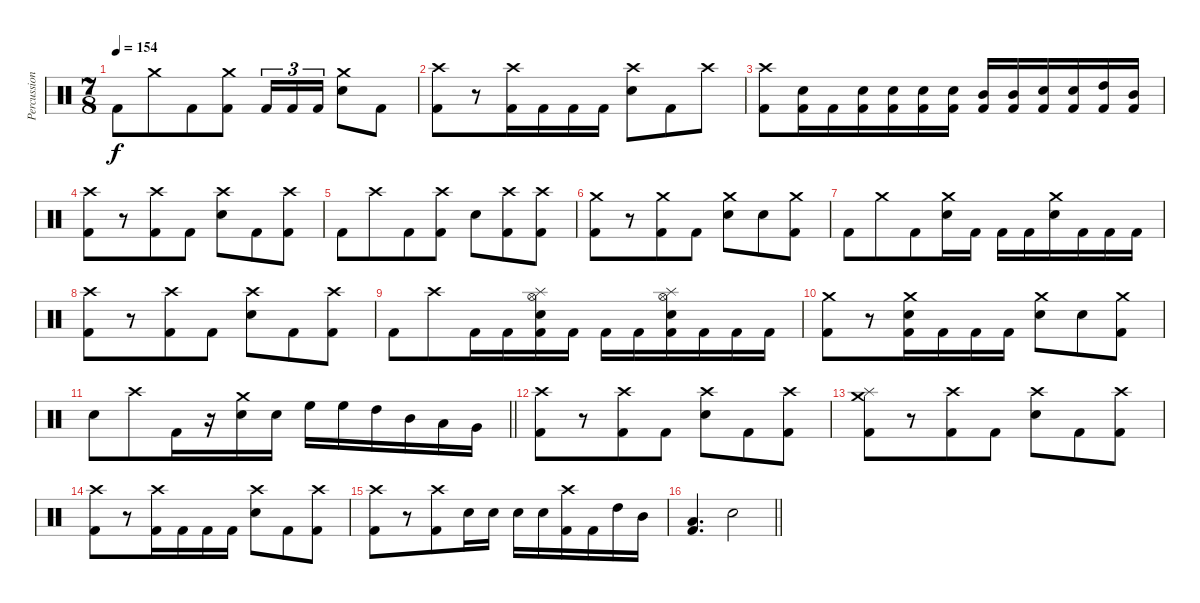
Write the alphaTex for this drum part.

\track ("Percussions" "Percussion") {instrument percussion}
\staff {score}
\articulation defaults
\ts (7 8)
\tempo 154
\clef neutral
\ks c "Kick (hit) 2".8{dy f} "Crash medium (hit)".8 "Kick (hit) 2".8
("Crash medium (hit)" "Kick (hit) 2").8 "Kick (hit) 2".16{tu (3 2)} "Kick (hit) 2".16{tu (3 2)} "Kick (hit) 2".16{tu (3 2)} ("Crash medium (hit)" "Electric Snare (hit)").8 "Kick (hit) 2".8 |
("Crash high (hit)" "Kick (hit) 2").8 r.8 ("Crash high (hit)" "Kick (hit) 2").16 "Kick (hit) 2".16 "Kick (hit) 2".16 "Kick (hit) 2".16 ("Crash high (hit)" "Electric Snare (hit)").8 "Kick (hit) 2".8 "Crash high (hit)".8 |
("Crash high (hit)" "Kick (hit) 2").8 ("Electric Snare (hit)" "Kick (hit) 2").16 "Kick (hit) 2".16 ("Electric Snare (hit)" "Kick (hit) 2").16 ("Electric Snare (hit)" "Kick (hit) 2").16 ("Electric Snare (hit)" "Kick (hit) 2").16 ("Electric Snare (hit)" "Kick (hit) 2").16 ("Mid Tom (hit)" "Kick (hit) 2").16 ("Mid Tom (hit)" "Kick (hit) 2").16 ("Electric Snare (hit)" "Kick (hit) 2").16 ("Electric Snare (hit)" "Kick (hit) 2").16 ("High Tom (hit)" "Kick (hit) 2").16 ("Mid Tom (hit)" "Kick (hit) 2").16 |
("Crash high (hit)" "Kick (hit) 2").8 r.8 ("Crash high (hit)" "Kick (hit) 2").8 "Kick (hit) 2".8 ("Crash high (hit)" "Electric Snare (hit)").8 "Kick (hit) 2".8 ("Crash high (hit)" "Kick (hit) 2").8 |
"Kick (hit) 2".8 "Crash high (hit)".8 "Kick (hit) 2".8 ("Crash high (hit)" "Kick (hit) 2").8 "Electric Snare (hit)".8 ("Crash high (hit)" "Kick (hit) 2").8 ("Crash high (hit)" "Kick (hit) 2").8 |
("Crash medium (hit)" "Kick (hit) 2").8 r.8 ("Crash medium (hit)" "Kick (hit) 2").8 "Kick (hit) 2".8 ("Crash medium (hit)" "Electric Snare (hit)").8 "Electric Snare (hit)".8 ("Crash medium (hit)" "Kick (hit) 2").8 |
"Kick (hit) 2".8 "Crash medium (hit)".8 "Kick (hit) 2".8 ("Crash medium (hit)" "Electric Snare (hit)").16 "Kick (hit) 2".16 "Kick (hit) 2".16 "Kick (hit) 2".16 ("Crash medium (hit)" "Electric Snare (hit)").16 "Kick (hit) 2".16 "Kick (hit) 2".16 "Kick (hit) 2".16 |
("Crash high (hit)" "Kick (hit) 2").8 r.8 ("Crash high (hit)" "Kick (hit) 2").8 "Kick (hit) 2".8 ("Crash high (hit)" "Electric Snare (hit)").8 "Kick (hit) 2".8 ("Crash high (hit)" "Kick (hit) 2").8 |
"Kick (hit) 2".8 "Crash high (hit)".8 "Kick (hit) 2".16 "Kick (hit) 2".16 ("Splash (hit)" "Hi-Hat (open)" "Electric Snare (hit)" "Kick (hit) 2").16 "Kick (hit) 2".16 "Kick (hit) 2".16 "Kick (hit) 2".16 ("Splash (hit)" "Hi-Hat (open)" "Electric Snare (hit)" "Kick (hit) 2").16 "Kick (hit) 2".16 "Kick (hit) 2".16 "Kick (hit) 2".16 |
("Crash medium (hit)" "Kick (hit) 2").8 r.8 ("Crash medium (hit)" "Electric Snare (hit)" "Kick (hit) 2").16 "Kick (hit) 2".16 "Kick (hit) 2".16 "Kick (hit) 2".16 ("Crash medium (hit)" "Electric Snare (hit)").8 "Electric Snare (hit)".8 ("Crash medium (hit)" "Kick (hit) 2").8 |
\barLineRight lightlight "Electric Snare (hit)".8 "Crash high (hit)".8 "Kick (hit) 2".16
r.16 ("Crash medium (hit)" "Electric Snare (hit)").16 "Electric Snare (hit)".16 "High Floor Tom (hit)".16 "High Floor Tom (hit)".16 "High Tom (hit)".16 "Mid Tom (hit)".16 "Low Tom (hit)".16 "Very Low Tom (hit)".16 |
\section ("" "")
("Crash high (hit)" "Kick (hit) 2").8 r.8 ("Crash high (hit)" "Kick (hit) 2").8 "Kick (hit) 2".8 ("Crash high (hit)" "Electric Snare (hit)").8 "Kick (hit) 2".8 ("Crash high (hit)" "Kick (hit) 2").8 |
("Crash medium (hit)" "Splash (hit)" "Kick (hit) 2").8 r.8 ("Crash high (hit)" "Kick (hit) 2").8 "Kick (hit) 2".8 ("Crash high (hit)" "Electric Snare (hit)").8 "Kick (hit) 2".8 ("Crash high (hit)" "Kick (hit) 2").8 |
("Crash high (hit)" "Kick (hit) 2").8 r.8 ("Crash high (hit)" "Kick (hit) 2").16 "Kick (hit) 2".16 "Kick (hit) 2".16 "Kick (hit) 2".16 ("Crash high (hit)" "Electric Snare (hit)").8 "Kick (hit) 2".8 ("Crash high (hit)" "Kick (hit) 2").8 |
("Crash high (hit)" "Kick (hit) 2").8 r.8 ("Crash high (hit)" "Kick (hit) 2").8 "Electric Snare (hit)".16 "Electric Snare (hit)".16 "Electric Snare (hit)".16 "Electric Snare (hit)".16 ("Crash high (hit)" "Kick (hit) 2").16 "Kick (hit) 2".16 "High Tom (hit)".16 "Mid Tom (hit)".16 |
\barLineRight lightlight
("Low Tom (hit)" "Kick (hit) 2").4{d} "Snare (hit)".2
